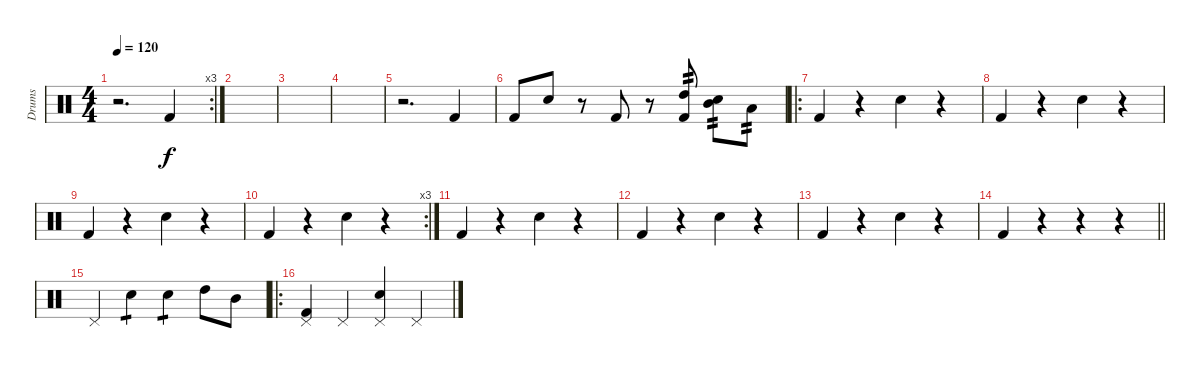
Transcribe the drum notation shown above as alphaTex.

\track ("Drums" "Drums") {instrument percussion}
\staff {score}
\articulation defaults
\rc 3
\ts (4 4)
\tempo 120
\clef neutral
\ks c
r.2{d dy f} "Kick (hit) 2".4 |
|
|
|
r.2{d} "Kick (hit) 2".4 |
"Kick (hit) 2".8 "Snare (hit) 2".8 r.8 "Kick (hit) 2".8 r.8 ("Kick (hit) 2" "High Tom (hit)").8{tp 2} ("Snare (hit) 2" "Mid Tom (hit)").8{tp 2} "Low Floor Tom (hit)".8{tp 2} |
\ro "Kick (hit) 2".4
r.4 "Snare (hit) 2".4 r.4 |
"Kick (hit) 2".4 r.4 "Snare (hit) 2".4 r.4 |
"Kick (hit) 2".4 r.4 "Snare (hit) 2".4 r.4 |
\rc 3 "Kick (hit) 2".4
r.4 "Snare (hit) 2".4 r.4 |
"Kick (hit) 2".4 r.4 "Snare (hit) 2".4 r.4 |
"Kick (hit) 2".4 r.4 "Snare (hit) 2".4 r.4 |
"Kick (hit) 2".4 r.4 "Snare (hit) 2".4 r.4 |
\barLineRight lightlight "Kick (hit) 2".4
r.4 r.4 r.4 |
"Pedal Hi-Hat (hit)".4 "Snare (hit) 2".4{tp 1} "Snare (hit) 2".4{tp 1} "High Tom (hit)".8 "Mid Tom (hit)".8 |
\ro
("Kick (hit) 2" "Pedal Hi-Hat (hit)").4 "Pedal Hi-Hat (hit)".4 ("Snare (hit) 2" "Pedal Hi-Hat (hit)").4 "Pedal Hi-Hat (hit)".4
